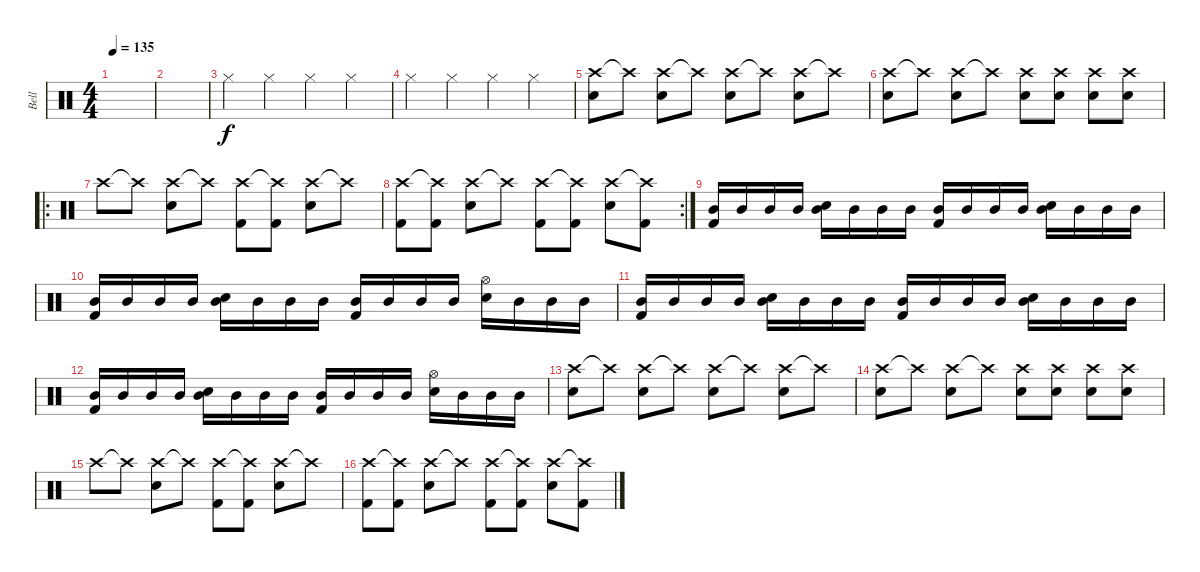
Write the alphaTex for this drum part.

\track ("Bell" "Bell") {instrument percussion}
\staff {score}
\articulation defaults
\ts (4 4)
\tempo 135
\clef neutral
\ks c
|
|
"Hi-Hat (closed)".4 "Hi-Hat (closed)".4 "Hi-Hat (closed)".4 "Hi-Hat (closed)".4 |
"Hi-Hat (closed)".4 "Hi-Hat (closed)".4 "Hi-Hat (closed)".4 "Hi-Hat (closed)".4 |
("Crash high (hit)" "Snare (hit) 2").8 "Crash high (hit)"{t}.8 ("Crash high (hit)" "Snare (hit) 2").8 "Crash high (hit)"{t}.8 ("Crash high (hit)" "Snare (hit) 2").8 "Crash high (hit)"{t}.8 ("Crash high (hit)" "Snare (hit) 2").8 "Crash high (hit)"{t}.8 |
("Crash high (hit)" "Snare (hit) 2").8 "Crash high (hit)"{t}.8 ("Crash high (hit)" "Snare (hit) 2").8 "Crash high (hit)"{t}.8 ("Crash high (hit)" "Snare (hit) 2").8 ("Crash high (hit)" "Snare (hit) 2").8 ("Crash high (hit)" "Snare (hit) 2").8 ("Crash high (hit)" "Snare (hit) 2").8 |
\ro "Crash high (hit)".8 "Crash high (hit)"{t}.8
("Crash high (hit)" "Snare (hit) 2").8 "Crash high (hit)"{t}.8 ("Crash high (hit)" "Kick (hit) 2").8 ("Crash high (hit)"{t} "Kick (hit) 2").8 ("Crash high (hit)" "Snare (hit) 2").8 "Crash high (hit)"{t}.8 |
\rc 2
("Crash high (hit)" "Kick (hit) 2").8 ("Crash high (hit)"{t} "Kick (hit) 2").8 ("Crash high (hit)" "Snare (hit) 2").8 "Crash high (hit)"{t}.8 ("Crash high (hit)" "Kick (hit) 2").8 ("Crash high (hit)"{t} "Kick (hit) 2").8 ("Crash high (hit)" "Snare (hit) 2").8 ("Crash high (hit)"{t} "Kick (hit) 2").8 |
("Mid Tom (hit)" "Kick (hit) 2").16 "Mid Tom (hit)".16 "Mid Tom (hit)".16 "Mid Tom (hit)".16 ("Mid Tom (hit)" "Snare (hit) 2").16 "Mid Tom (hit)".16 "Mid Tom (hit)".16 "Mid Tom (hit)".16 ("Mid Tom (hit)" "Kick (hit) 2").16 "Mid Tom (hit)".16 "Mid Tom (hit)".16 "Mid Tom (hit)".16 ("Mid Tom (hit)" "Snare (hit) 2").16 "Mid Tom (hit)".16 "Mid Tom (hit)".16 "Mid Tom (hit)".16 |
("Mid Tom (hit)" "Kick (hit) 2").16 "Mid Tom (hit)".16 "Mid Tom (hit)".16 "Mid Tom (hit)".16 ("Mid Tom (hit)" "Snare (hit) 2").16 "Mid Tom (hit)".16 "Mid Tom (hit)".16 "Mid Tom (hit)".16 ("Mid Tom (hit)" "Kick (hit) 2").16 "Mid Tom (hit)".16 "Mid Tom (hit)".16 "Mid Tom (hit)".16 ("Hi-Hat (open)" "Snare (hit) 2").16 "Mid Tom (hit)".16 "Mid Tom (hit)".16 "Mid Tom (hit)".16 |
("Mid Tom (hit)" "Kick (hit) 2").16 "Mid Tom (hit)".16 "Mid Tom (hit)".16 "Mid Tom (hit)".16 ("Mid Tom (hit)" "Snare (hit) 2").16 "Mid Tom (hit)".16 "Mid Tom (hit)".16 "Mid Tom (hit)".16 ("Mid Tom (hit)" "Kick (hit) 2").16 "Mid Tom (hit)".16 "Mid Tom (hit)".16 "Mid Tom (hit)".16 ("Mid Tom (hit)" "Snare (hit) 2").16 "Mid Tom (hit)".16 "Mid Tom (hit)".16 "Mid Tom (hit)".16 |
("Mid Tom (hit)" "Kick (hit) 2").16 "Mid Tom (hit)".16 "Mid Tom (hit)".16 "Mid Tom (hit)".16 ("Mid Tom (hit)" "Snare (hit) 2").16 "Mid Tom (hit)".16 "Mid Tom (hit)".16 "Mid Tom (hit)".16 ("Mid Tom (hit)" "Kick (hit) 2").16 "Mid Tom (hit)".16 "Mid Tom (hit)".16 "Mid Tom (hit)".16 ("Hi-Hat (open)" "Snare (hit) 2").16 "Mid Tom (hit)".16 "Mid Tom (hit)".16 "Mid Tom (hit)".16 |
("Crash high (hit)" "Snare (hit) 2").8 "Crash high (hit)"{t}.8 ("Crash high (hit)" "Snare (hit) 2").8 "Crash high (hit)"{t}.8 ("Crash high (hit)" "Snare (hit) 2").8 "Crash high (hit)"{t}.8 ("Crash high (hit)" "Snare (hit) 2").8 "Crash high (hit)"{t}.8 |
("Crash high (hit)" "Snare (hit) 2").8 "Crash high (hit)"{t}.8 ("Crash high (hit)" "Snare (hit) 2").8 "Crash high (hit)"{t}.8 ("Crash high (hit)" "Snare (hit) 2").8 ("Crash high (hit)" "Snare (hit) 2").8 ("Crash high (hit)" "Snare (hit) 2").8 ("Crash high (hit)" "Snare (hit) 2").8 |
"Crash high (hit)".8 "Crash high (hit)"{t}.8 ("Crash high (hit)" "Snare (hit) 2").8 "Crash high (hit)"{t}.8 ("Crash high (hit)" "Kick (hit) 2").8 ("Crash high (hit)"{t} "Kick (hit) 2").8 ("Crash high (hit)" "Snare (hit) 2").8 "Crash high (hit)"{t}.8 |
("Crash high (hit)" "Kick (hit) 2").8 ("Crash high (hit)"{t} "Kick (hit) 2").8 ("Crash high (hit)" "Snare (hit) 2").8 "Crash high (hit)"{t}.8 ("Crash high (hit)" "Kick (hit) 2").8 ("Crash high (hit)"{t} "Kick (hit) 2").8 ("Crash high (hit)" "Snare (hit) 2").8 ("Crash high (hit)"{t} "Kick (hit) 2").8
